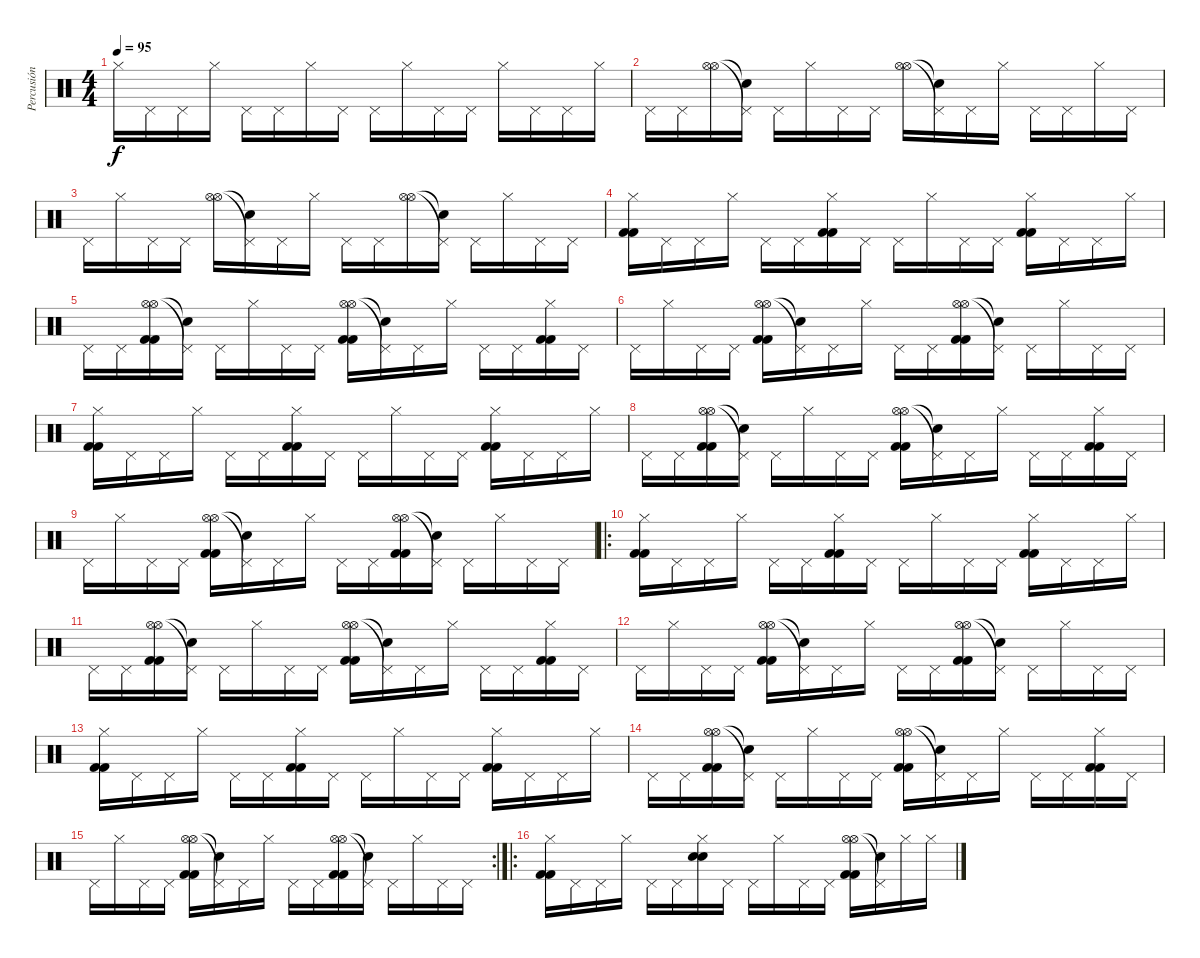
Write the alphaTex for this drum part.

\track ("Percusión" "Percusión") {instrument percussion}
\staff {score}
\articulation defaults
\ts (4 4)
\tempo 95
\clef neutral
\ks c "Hi-Hat (closed)".16{dy f} "Pedal Hi-Hat (hit)".16 "Pedal Hi-Hat (hit)".16 "Hi-Hat (closed)".16 "Pedal Hi-Hat (hit)".16 "Pedal Hi-Hat (hit)".16 "Hi-Hat (closed)".16 "Pedal Hi-Hat (hit)".16 "Pedal Hi-Hat (hit)".16 "Hi-Hat (closed)".16 "Pedal Hi-Hat (hit)".16 "Pedal Hi-Hat (hit)".16 "Hi-Hat (closed)".16 "Pedal Hi-Hat (hit)".16 "Pedal Hi-Hat (hit)".16 "Hi-Hat (closed)".16
|
"Pedal Hi-Hat (hit)".16 "Pedal Hi-Hat (hit)".16 ("Hi-Hat (open)" "Hi-Hat (open)").16 ("Pedal Hi-Hat (hit)"{t} "Snare (hit)"{t}).16 "Pedal Hi-Hat (hit)".16 "Hi-Hat (closed)".16 "Pedal Hi-Hat (hit)".16 "Pedal Hi-Hat (hit)".16 ("Hi-Hat (open)" "Hi-Hat (open)").16 ("Pedal Hi-Hat (hit)"{t} "Snare (hit)"{t}).16 "Pedal Hi-Hat (hit)".16 "Hi-Hat (closed)".16 "Pedal Hi-Hat (hit)".16 "Pedal Hi-Hat (hit)".16 "Hi-Hat (closed)".16 "Pedal Hi-Hat (hit)".16 |
"Pedal Hi-Hat (hit)".16 "Hi-Hat (closed)".16 "Pedal Hi-Hat (hit)".16 "Pedal Hi-Hat (hit)".16 ("Hi-Hat (open)" "Hi-Hat (open)").16 ("Pedal Hi-Hat (hit)"{t} "Snare (hit)"{t}).16 "Pedal Hi-Hat (hit)".16 "Hi-Hat (closed)".16 "Pedal Hi-Hat (hit)".16 "Pedal Hi-Hat (hit)".16 ("Hi-Hat (open)" "Hi-Hat (open)").16 ("Pedal Hi-Hat (hit)"{t} "Snare (hit)"{t}).16 "Pedal Hi-Hat (hit)".16 "Hi-Hat (closed)".16 "Pedal Hi-Hat (hit)".16 "Pedal Hi-Hat (hit)".16 |
("Hi-Hat (closed)" "Kick (hit) 2" "Kick (hit) 2").16 "Pedal Hi-Hat (hit)".16 "Pedal Hi-Hat (hit)".16 "Hi-Hat (closed)".16 "Pedal Hi-Hat (hit)".16 "Pedal Hi-Hat (hit)".16 ("Hi-Hat (closed)" "Kick (hit) 2" "Kick (hit) 2").16 "Pedal Hi-Hat (hit)".16 "Pedal Hi-Hat (hit)".16 "Hi-Hat (closed)".16 "Pedal Hi-Hat (hit)".16 "Pedal Hi-Hat (hit)".16 ("Hi-Hat (closed)" "Kick (hit) 2" "Kick (hit) 2").16 "Pedal Hi-Hat (hit)".16 "Pedal Hi-Hat (hit)".16 "Hi-Hat (closed)".16 |
"Pedal Hi-Hat (hit)".16 "Pedal Hi-Hat (hit)".16 ("Hi-Hat (open)" "Hi-Hat (open)" "Kick (hit) 2" "Kick (hit) 2").16 ("Pedal Hi-Hat (hit)"{t} "Snare (hit)"{t}).16 "Pedal Hi-Hat (hit)".16 "Hi-Hat (closed)".16 "Pedal Hi-Hat (hit)".16 "Pedal Hi-Hat (hit)".16 ("Hi-Hat (open)" "Hi-Hat (open)" "Kick (hit) 2" "Kick (hit) 2").16 ("Pedal Hi-Hat (hit)"{t} "Snare (hit)"{t}).16 "Pedal Hi-Hat (hit)".16 "Hi-Hat (closed)".16 "Pedal Hi-Hat (hit)".16 "Pedal Hi-Hat (hit)".16 ("Hi-Hat (closed)" "Kick (hit) 2" "Kick (hit) 2").16 "Pedal Hi-Hat (hit)".16 |
"Pedal Hi-Hat (hit)".16 "Hi-Hat (closed)".16 "Pedal Hi-Hat (hit)".16 "Pedal Hi-Hat (hit)".16 ("Hi-Hat (open)" "Hi-Hat (open)" "Kick (hit) 2" "Kick (hit) 2").16 ("Pedal Hi-Hat (hit)"{t} "Snare (hit)"{t}).16 "Pedal Hi-Hat (hit)".16 "Hi-Hat (closed)".16 "Pedal Hi-Hat (hit)".16 "Pedal Hi-Hat (hit)".16 ("Hi-Hat (open)" "Hi-Hat (open)" "Kick (hit) 2" "Kick (hit) 2").16 ("Pedal Hi-Hat (hit)"{t} "Snare (hit)"{t}).16 "Pedal Hi-Hat (hit)".16 "Hi-Hat (closed)".16 "Pedal Hi-Hat (hit)".16 "Pedal Hi-Hat (hit)".16 |
("Hi-Hat (closed)" "Kick (hit) 2" "Kick (hit) 2").16 "Pedal Hi-Hat (hit)".16 "Pedal Hi-Hat (hit)".16 "Hi-Hat (closed)".16 "Pedal Hi-Hat (hit)".16 "Pedal Hi-Hat (hit)".16 ("Hi-Hat (closed)" "Kick (hit) 2" "Kick (hit) 2").16 "Pedal Hi-Hat (hit)".16 "Pedal Hi-Hat (hit)".16 "Hi-Hat (closed)".16 "Pedal Hi-Hat (hit)".16 "Pedal Hi-Hat (hit)".16 ("Hi-Hat (closed)" "Kick (hit) 2" "Kick (hit) 2").16 "Pedal Hi-Hat (hit)".16 "Pedal Hi-Hat (hit)".16 "Hi-Hat (closed)".16 |
"Pedal Hi-Hat (hit)".16 "Pedal Hi-Hat (hit)".16 ("Hi-Hat (open)" "Hi-Hat (open)" "Kick (hit) 2" "Kick (hit) 2").16 ("Pedal Hi-Hat (hit)"{t} "Snare (hit)"{t}).16 "Pedal Hi-Hat (hit)".16 "Hi-Hat (closed)".16 "Pedal Hi-Hat (hit)".16 "Pedal Hi-Hat (hit)".16 ("Hi-Hat (open)" "Hi-Hat (open)" "Kick (hit) 2" "Kick (hit) 2").16 ("Pedal Hi-Hat (hit)"{t} "Snare (hit)"{t}).16 "Pedal Hi-Hat (hit)".16 "Hi-Hat (closed)".16 "Pedal Hi-Hat (hit)".16 "Pedal Hi-Hat (hit)".16 ("Hi-Hat (closed)" "Kick (hit) 2" "Kick (hit) 2").16 "Pedal Hi-Hat (hit)".16 |
"Pedal Hi-Hat (hit)".16 "Hi-Hat (closed)".16 "Pedal Hi-Hat (hit)".16 "Pedal Hi-Hat (hit)".16 ("Hi-Hat (open)" "Hi-Hat (open)" "Kick (hit) 2" "Kick (hit) 2").16 ("Pedal Hi-Hat (hit)"{t} "Snare (hit)"{t}).16 "Pedal Hi-Hat (hit)".16 "Hi-Hat (closed)".16 "Pedal Hi-Hat (hit)".16 "Pedal Hi-Hat (hit)".16 ("Hi-Hat (open)" "Hi-Hat (open)" "Kick (hit) 2" "Kick (hit) 2").16 ("Pedal Hi-Hat (hit)"{t} "Snare (hit)"{t}).16 "Pedal Hi-Hat (hit)".16 "Hi-Hat (closed)".16 "Pedal Hi-Hat (hit)".16 "Pedal Hi-Hat (hit)".16 |
\ro
("Hi-Hat (closed)" "Kick (hit) 2" "Kick (hit) 2").16 "Pedal Hi-Hat (hit)".16 "Pedal Hi-Hat (hit)".16 "Hi-Hat (closed)".16 "Pedal Hi-Hat (hit)".16 "Pedal Hi-Hat (hit)".16 ("Hi-Hat (closed)" "Kick (hit) 2" "Kick (hit) 2").16 "Pedal Hi-Hat (hit)".16 "Pedal Hi-Hat (hit)".16 "Hi-Hat (closed)".16 "Pedal Hi-Hat (hit)".16 "Pedal Hi-Hat (hit)".16 ("Hi-Hat (closed)" "Kick (hit) 2" "Kick (hit) 2").16 "Pedal Hi-Hat (hit)".16 "Pedal Hi-Hat (hit)".16 "Hi-Hat (closed)".16 |
"Pedal Hi-Hat (hit)".16 "Pedal Hi-Hat (hit)".16 ("Hi-Hat (open)" "Hi-Hat (open)" "Kick (hit) 2" "Kick (hit) 2").16 ("Pedal Hi-Hat (hit)"{t} "Snare (hit)"{t}).16 "Pedal Hi-Hat (hit)".16 "Hi-Hat (closed)".16 "Pedal Hi-Hat (hit)".16 "Pedal Hi-Hat (hit)".16 ("Hi-Hat (open)" "Hi-Hat (open)" "Kick (hit) 2" "Kick (hit) 2").16 ("Pedal Hi-Hat (hit)"{t} "Snare (hit)"{t}).16 "Pedal Hi-Hat (hit)".16 "Hi-Hat (closed)".16 "Pedal Hi-Hat (hit)".16 "Pedal Hi-Hat (hit)".16 ("Hi-Hat (closed)" "Kick (hit) 2" "Kick (hit) 2").16 "Pedal Hi-Hat (hit)".16 |
"Pedal Hi-Hat (hit)".16 "Hi-Hat (closed)".16 "Pedal Hi-Hat (hit)".16 "Pedal Hi-Hat (hit)".16 ("Hi-Hat (open)" "Hi-Hat (open)" "Kick (hit) 2" "Kick (hit) 2").16 ("Pedal Hi-Hat (hit)"{t} "Snare (hit)"{t}).16 "Pedal Hi-Hat (hit)".16 "Hi-Hat (closed)".16 "Pedal Hi-Hat (hit)".16 "Pedal Hi-Hat (hit)".16 ("Hi-Hat (open)" "Hi-Hat (open)" "Kick (hit) 2" "Kick (hit) 2").16 ("Pedal Hi-Hat (hit)"{t} "Snare (hit)"{t}).16 "Pedal Hi-Hat (hit)".16 "Hi-Hat (closed)".16 "Pedal Hi-Hat (hit)".16 "Pedal Hi-Hat (hit)".16 |
("Hi-Hat (closed)" "Kick (hit) 2" "Kick (hit) 2").16 "Pedal Hi-Hat (hit)".16 "Pedal Hi-Hat (hit)".16 "Hi-Hat (closed)".16 "Pedal Hi-Hat (hit)".16 "Pedal Hi-Hat (hit)".16 ("Hi-Hat (closed)" "Kick (hit) 2" "Kick (hit) 2").16 "Pedal Hi-Hat (hit)".16 "Pedal Hi-Hat (hit)".16 "Hi-Hat (closed)".16 "Pedal Hi-Hat (hit)".16 "Pedal Hi-Hat (hit)".16 ("Hi-Hat (closed)" "Kick (hit) 2" "Kick (hit) 2").16 "Pedal Hi-Hat (hit)".16 "Pedal Hi-Hat (hit)".16 "Hi-Hat (closed)".16 |
"Pedal Hi-Hat (hit)".16 "Pedal Hi-Hat (hit)".16 ("Hi-Hat (open)" "Hi-Hat (open)" "Kick (hit) 2" "Kick (hit) 2").16 ("Pedal Hi-Hat (hit)"{t} "Snare (hit)"{t}).16 "Pedal Hi-Hat (hit)".16 "Hi-Hat (closed)".16 "Pedal Hi-Hat (hit)".16 "Pedal Hi-Hat (hit)".16 ("Hi-Hat (open)" "Hi-Hat (open)" "Kick (hit) 2" "Kick (hit) 2").16 ("Pedal Hi-Hat (hit)"{t} "Snare (hit)"{t}).16 "Pedal Hi-Hat (hit)".16 "Hi-Hat (closed)".16 "Pedal Hi-Hat (hit)".16 "Pedal Hi-Hat (hit)".16 ("Hi-Hat (closed)" "Kick (hit) 2" "Kick (hit) 2").16 "Pedal Hi-Hat (hit)".16 |
\rc 2 "Pedal Hi-Hat (hit)".16 "Hi-Hat (closed)".16 "Pedal Hi-Hat (hit)".16 "Pedal Hi-Hat (hit)".16
("Hi-Hat (open)" "Hi-Hat (open)" "Kick (hit) 2" "Kick (hit) 2").16 ("Pedal Hi-Hat (hit)"{t} "Snare (hit)"{t}).16 "Pedal Hi-Hat (hit)".16 "Hi-Hat (closed)".16 "Pedal Hi-Hat (hit)".16 "Pedal Hi-Hat (hit)".16 ("Hi-Hat (open)" "Hi-Hat (open)" "Kick (hit) 2" "Kick (hit) 2").16 ("Pedal Hi-Hat (hit)"{t} "Snare (hit)"{t}).16 "Pedal Hi-Hat (hit)".16 "Hi-Hat (closed)".16 "Pedal Hi-Hat (hit)".16 "Pedal Hi-Hat (hit)".16 |
\ro
("Hi-Hat (closed)" "Kick (hit) 2" "Kick (hit) 2").16 "Pedal Hi-Hat (hit)".16 "Pedal Hi-Hat (hit)".16 "Hi-Hat (closed)".16 "Pedal Hi-Hat (hit)".16 "Pedal Hi-Hat (hit)".16 ("Hi-Hat (closed)" "Electric Snare (hit)" "Electric Snare (hit)").16 "Pedal Hi-Hat (hit)".16 "Pedal Hi-Hat (hit)".16 "Hi-Hat (closed)".16 "Pedal Hi-Hat (hit)".16 "Pedal Hi-Hat (hit)".16 ("Hi-Hat (open)" "Hi-Hat (open)" "Kick (hit) 2" "Kick (hit) 2").16 ("Pedal Hi-Hat (hit)"{t} "Snare (hit)"{t}).16 "Hi-Hat (closed)".16 "Hi-Hat (closed)".16
